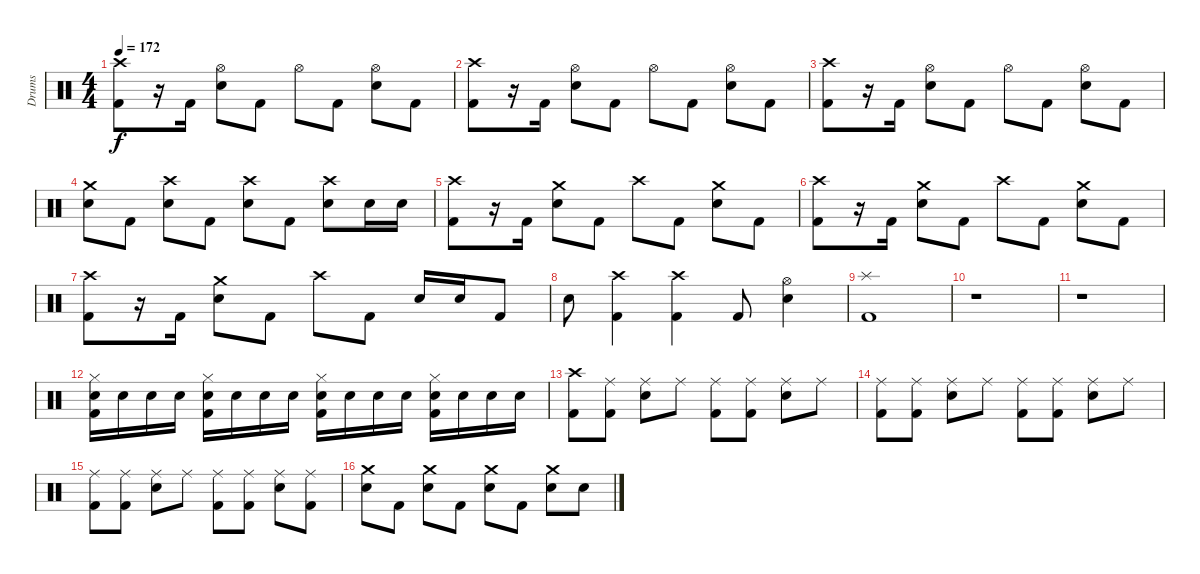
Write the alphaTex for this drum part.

\track ("Drums" "Drums") {instrument percussion}
\staff {score}
\articulation defaults
\ts (4 4)
\tempo 172
\clef neutral
\ks c
("Crash high (hit)" "Kick (hit) 2").8{dy f} r.16 "Kick (hit) 2".16 ("Hi-Hat (open)" "Snare (hit) 2").8 "Kick (hit) 2".8 "Hi-Hat (open)".8 "Kick (hit) 2".8 ("Hi-Hat (open)" "Snare (hit) 2").8 "Kick (hit) 2".8 |
("Crash high (hit)" "Kick (hit) 2").8 r.16 "Kick (hit) 2".16 ("Hi-Hat (open)" "Snare (hit) 2").8 "Kick (hit) 2".8 "Hi-Hat (open)".8 "Kick (hit) 2".8 ("Hi-Hat (open)" "Snare (hit) 2").8 "Kick (hit) 2".8 |
("Crash high (hit)" "Kick (hit) 2").8 r.16 "Kick (hit) 2".16 ("Hi-Hat (open)" "Snare (hit) 2").8 "Kick (hit) 2".8 "Hi-Hat (open)".8 "Kick (hit) 2".8 ("Hi-Hat (open)" "Snare (hit) 2").8 "Kick (hit) 2".8 |
("Crash medium (hit)" "Snare (hit) 2").8 "Kick (hit) 2".8 ("Crash high (hit)" "Snare (hit) 2").8 "Kick (hit) 2".8 ("Crash high (hit)" "Snare (hit) 2").8 "Kick (hit) 2".8 ("Crash high (hit)" "Snare (hit) 2").8 "Snare (hit) 2".16 "Snare (hit) 2".16 |
("Crash high (hit)" "Kick (hit) 2").8 r.16 "Kick (hit) 2".16 ("Crash medium (hit)" "Snare (hit) 2").8 "Kick (hit) 2".8 "Crash high (hit)".8 "Kick (hit) 2".8 ("Crash medium (hit)" "Snare (hit) 2").8 "Kick (hit) 2".8 |
("Crash high (hit)" "Kick (hit) 2").8 r.16 "Kick (hit) 2".16 ("Crash medium (hit)" "Snare (hit) 2").8 "Kick (hit) 2".8 "Crash high (hit)".8 "Kick (hit) 2".8 ("Crash medium (hit)" "Snare (hit) 2").8 "Kick (hit) 2".8 |
("Crash high (hit)" "Kick (hit) 2").8 r.16 "Kick (hit) 2".16 ("Crash medium (hit)" "Snare (hit) 2").8 "Kick (hit) 2".8 "Crash high (hit)".8 "Kick (hit) 2".8 "Snare (hit) 2".16 "Snare (hit) 2".16 "Kick (hit) 2".8 |
"Snare (hit) 2".8 ("Crash high (hit)" "Kick (hit) 2").4 ("Crash high (hit)" "Kick (hit) 2").4 "Kick (hit) 2".8 ("Hi-Hat (open)" "Snare (hit) 2").4 |
("Splash (hit)" "Kick (hit) 2").1 |
r.1 |
r.1 |
("Hi-Hat (closed)" "Snare (hit) 2" "Kick (hit) 2").16 "Snare (hit) 2".16 "Snare (hit) 2".16 "Snare (hit) 2".16 ("Hi-Hat (closed)" "Snare (hit) 2" "Kick (hit) 2").16 "Snare (hit) 2".16 "Snare (hit) 2".16 "Snare (hit) 2".16 ("Hi-Hat (closed)" "Snare (hit) 2" "Kick (hit) 2").16 "Snare (hit) 2".16 "Snare (hit) 2".16 "Snare (hit) 2".16 ("Hi-Hat (closed)" "Snare (hit) 2" "Kick (hit) 2").16 "Snare (hit) 2".16 "Snare (hit) 2".16 "Snare (hit) 2".16 |
("Crash high (hit)" "Kick (hit) 2").8 ("Ride (middle)" "Kick (hit) 2").8 ("Ride (middle)" "Snare (hit) 2").8 "Ride (middle)".8 ("Ride (middle)" "Kick (hit) 2").8 ("Ride (middle)" "Kick (hit) 2").8 ("Ride (middle)" "Snare (hit) 2").8 "Ride (middle)".8 |
("Ride (middle)" "Kick (hit) 2").8 ("Ride (middle)" "Kick (hit) 2").8 ("Ride (middle)" "Snare (hit) 2").8 "Ride (middle)".8 ("Ride (middle)" "Kick (hit) 2").8 ("Ride (middle)" "Kick (hit) 2").8 ("Ride (middle)" "Snare (hit) 2").8 "Ride (middle)".8 |
("Ride (middle)" "Kick (hit) 2").8 ("Ride (middle)" "Kick (hit) 2").8 ("Ride (middle)" "Snare (hit) 2").8 "Ride (middle)".8 ("Ride (middle)" "Kick (hit) 2").8 ("Ride (middle)" "Kick (hit) 2").8 ("Ride (middle)" "Snare (hit) 2").8 ("Ride (middle)" "Kick (hit) 2").8 |
("Crash medium (hit)" "Snare (hit) 2").8 "Kick (hit) 2".8 ("Crash medium (hit)" "Snare (hit) 2").8 "Kick (hit) 2".8 ("Crash medium (hit)" "Snare (hit) 2").8 "Kick (hit) 2".8 ("Crash medium (hit)" "Snare (hit) 2").8 "Snare (hit) 2".8
